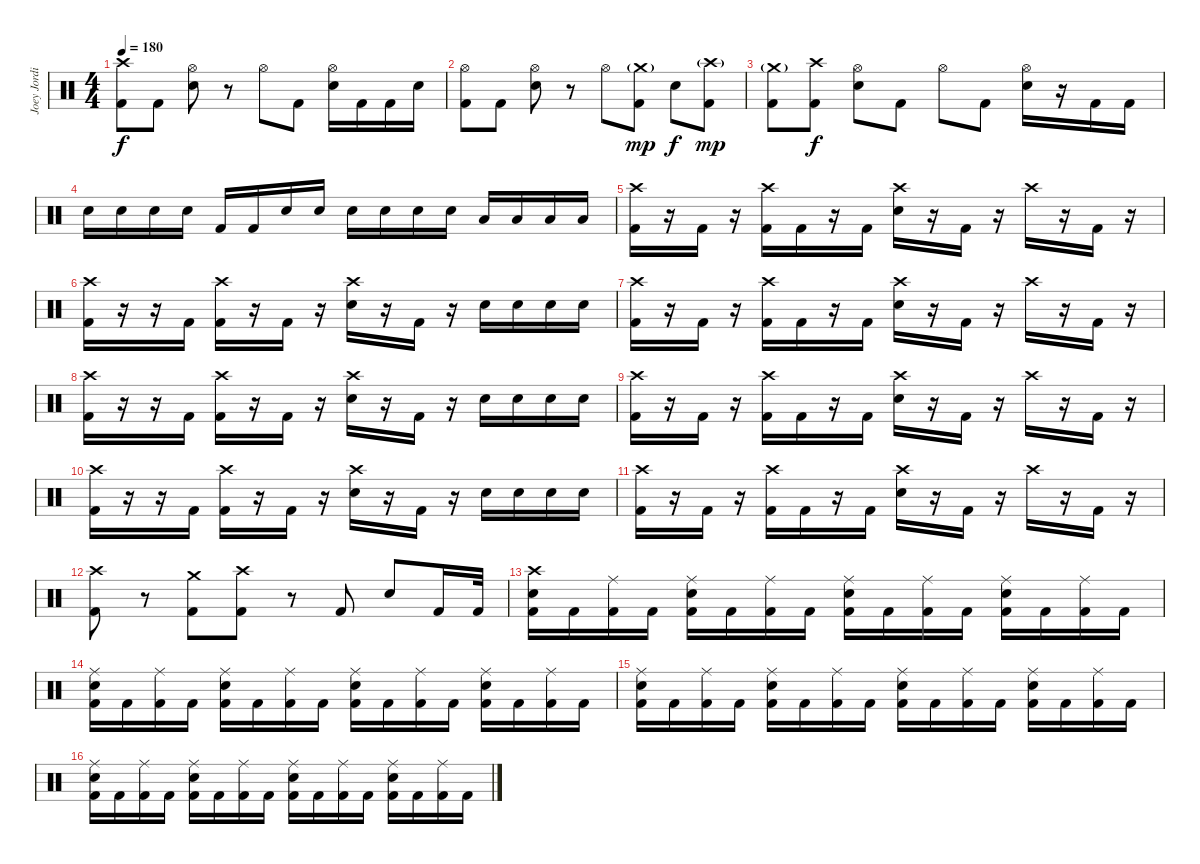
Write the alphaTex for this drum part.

\track ("Joey Jordison" "Joey Jordi") {instrument percussion}
\staff {score}
\articulation defaults
\ts (4 4)
\tempo 180
\clef neutral
\ks c
("Crash high (hit)" "Kick (hit) 2").8{dy f} "Kick (hit) 2".8 ("Hi-Hat (open)" "Electric Snare (hit)").8 r.8 "Hi-Hat (open)".8 "Kick (hit) 2".8 ("Hi-Hat (open)" "Electric Snare (hit)").16 "Kick (hit) 2".16 "Kick (hit) 2".16 "Electric Snare (hit)".16 |
("Hi-Hat (open)" "Kick (hit) 2").8 "Kick (hit) 2".8 ("Hi-Hat (open)" "Electric Snare (hit)").8 r.8 "Hi-Hat (open)".8 ("Crash medium (hit)"{g} "Kick (hit) 2").8{dy mp} "Electric Snare (hit)".8{dy f} ("Crash high (hit)"{g} "Kick (hit) 2").8{dy mp} |
("Crash medium (hit)"{g} "Kick (hit) 2").8 ("Crash high (hit)" "Kick (hit) 2").8{dy f} ("Hi-Hat (open)" "Electric Snare (hit)").8 "Kick (hit) 2".8 "Hi-Hat (open)".8 "Kick (hit) 2".8 ("Hi-Hat (open)" "Electric Snare (hit)").16 r.16 "Kick (hit) 2".16 "Kick (hit) 2".16 |
"Electric Snare (hit)".16 "Electric Snare (hit)".16 "Electric Snare (hit)".16 "Electric Snare (hit)".16 "Kick (hit) 2".16 "Kick (hit) 2".16 "Electric Snare (hit)".16 "Electric Snare (hit)".16 "Electric Snare (hit)".16 "Electric Snare (hit)".16 "Electric Snare (hit)".16 "Electric Snare (hit)".16 "Low Tom (hit)".16 "Low Tom (hit)".16 "Low Tom (hit)".16 "Low Tom (hit)".16 |
("Crash high (hit)" "Kick (hit) 2").16 r.16 "Kick (hit) 2".16 r.16 ("Crash high (hit)" "Kick (hit) 2").16 "Kick (hit) 2".16 r.16 "Kick (hit) 2".16 ("Crash high (hit)" "Electric Snare (hit)").16 r.16 "Kick (hit) 2".16 r.16 "Crash high (hit)".16 r.16 "Kick (hit) 2".16 r.16 |
("Crash high (hit)" "Kick (hit) 2").16 r.16 r.16 "Kick (hit) 2".16 ("Crash high (hit)" "Kick (hit) 2").16 r.16 "Kick (hit) 2".16 r.16 ("Crash high (hit)" "Electric Snare (hit)").16 r.16 "Kick (hit) 2".16 r.16 "Electric Snare (hit)".16 "Electric Snare (hit)".16 "Electric Snare (hit)".16 "Electric Snare (hit)".16 |
("Crash high (hit)" "Kick (hit) 2").16 r.16 "Kick (hit) 2".16 r.16 ("Crash high (hit)" "Kick (hit) 2").16 "Kick (hit) 2".16 r.16 "Kick (hit) 2".16 ("Crash high (hit)" "Electric Snare (hit)").16 r.16 "Kick (hit) 2".16 r.16 "Crash high (hit)".16 r.16 "Kick (hit) 2".16 r.16 |
("Crash high (hit)" "Kick (hit) 2").16 r.16 r.16 "Kick (hit) 2".16 ("Crash high (hit)" "Kick (hit) 2").16 r.16 "Kick (hit) 2".16 r.16 ("Crash high (hit)" "Electric Snare (hit)").16 r.16 "Kick (hit) 2".16 r.16 "Electric Snare (hit)".16 "Electric Snare (hit)".16 "Electric Snare (hit)".16 "Electric Snare (hit)".16 |
("Crash high (hit)" "Kick (hit) 2").16 r.16 "Kick (hit) 2".16 r.16 ("Crash high (hit)" "Kick (hit) 2").16 "Kick (hit) 2".16 r.16 "Kick (hit) 2".16 ("Crash high (hit)" "Electric Snare (hit)").16 r.16 "Kick (hit) 2".16 r.16 "Crash high (hit)".16 r.16 "Kick (hit) 2".16 r.16 |
("Crash high (hit)" "Kick (hit) 2").16 r.16 r.16 "Kick (hit) 2".16 ("Crash high (hit)" "Kick (hit) 2").16 r.16 "Kick (hit) 2".16 r.16 ("Crash high (hit)" "Electric Snare (hit)").16 r.16 "Kick (hit) 2".16 r.16 "Electric Snare (hit)".16 "Electric Snare (hit)".16 "Electric Snare (hit)".16 "Electric Snare (hit)".16 |
("Crash high (hit)" "Kick (hit) 2").16 r.16 "Kick (hit) 2".16 r.16 ("Crash high (hit)" "Kick (hit) 2").16 "Kick (hit) 2".16 r.16 "Kick (hit) 2".16 ("Crash high (hit)" "Electric Snare (hit)").16 r.16 "Kick (hit) 2".16 r.16 "Crash high (hit)".16 r.16 "Kick (hit) 2".16 r.16 |
("Crash high (hit)" "Kick (hit) 2").8 r.8 ("Crash medium (hit)" "Kick (hit) 2").8 ("Crash high (hit)" "Kick (hit) 2").8 r.8 "Kick (hit) 2".8 "Electric Snare (hit)".8 "Kick (hit) 2".16 "Kick (hit) 2".32 |
("Crash high (hit)" "Electric Snare (hit)" "Kick (hit) 2").16 "Kick (hit) 2".16 ("Ride (middle)" "Kick (hit) 2").16 "Kick (hit) 2".16 ("Ride (middle)" "Electric Snare (hit)" "Kick (hit) 2").16 "Kick (hit) 2".16 ("Ride (middle)" "Kick (hit) 2").16 "Kick (hit) 2".16 ("Ride (middle)" "Electric Snare (hit)" "Kick (hit) 2").16 "Kick (hit) 2".16 ("Ride (middle)" "Kick (hit) 2").16 "Kick (hit) 2".16 ("Ride (middle)" "Electric Snare (hit)" "Kick (hit) 2").16 "Kick (hit) 2".16 ("Ride (middle)" "Kick (hit) 2").16 "Kick (hit) 2".16 |
("Ride (middle)" "Electric Snare (hit)" "Kick (hit) 2").16 "Kick (hit) 2".16 ("Ride (middle)" "Kick (hit) 2").16 "Kick (hit) 2".16 ("Ride (middle)" "Electric Snare (hit)" "Kick (hit) 2").16 "Kick (hit) 2".16 ("Ride (middle)" "Kick (hit) 2").16 "Kick (hit) 2".16 ("Ride (middle)" "Electric Snare (hit)" "Kick (hit) 2").16 "Kick (hit) 2".16 ("Ride (middle)" "Kick (hit) 2").16 "Kick (hit) 2".16 ("Ride (middle)" "Electric Snare (hit)" "Kick (hit) 2").16 "Kick (hit) 2".16 ("Ride (middle)" "Kick (hit) 2").16 "Kick (hit) 2".16 |
("Ride (middle)" "Electric Snare (hit)" "Kick (hit) 2").16 "Kick (hit) 2".16 ("Ride (middle)" "Kick (hit) 2").16 "Kick (hit) 2".16 ("Ride (middle)" "Electric Snare (hit)" "Kick (hit) 2").16 "Kick (hit) 2".16 ("Ride (middle)" "Kick (hit) 2").16 "Kick (hit) 2".16 ("Ride (middle)" "Electric Snare (hit)" "Kick (hit) 2").16 "Kick (hit) 2".16 ("Ride (middle)" "Kick (hit) 2").16 "Kick (hit) 2".16 ("Ride (middle)" "Electric Snare (hit)" "Kick (hit) 2").16 "Kick (hit) 2".16 ("Ride (middle)" "Kick (hit) 2").16 "Kick (hit) 2".16 |
("Ride (middle)" "Electric Snare (hit)" "Kick (hit) 2").16 "Kick (hit) 2".16 ("Ride (middle)" "Kick (hit) 2").16 "Kick (hit) 2".16 ("Ride (middle)" "Electric Snare (hit)" "Kick (hit) 2").16 "Kick (hit) 2".16 ("Ride (middle)" "Kick (hit) 2").16 "Kick (hit) 2".16 ("Ride (middle)" "Electric Snare (hit)" "Kick (hit) 2").16 "Kick (hit) 2".16 ("Ride (middle)" "Kick (hit) 2").16 "Kick (hit) 2".16 ("Ride (middle)" "Electric Snare (hit)" "Kick (hit) 2").16 "Kick (hit) 2".16 ("Ride (middle)" "Kick (hit) 2").16 "Kick (hit) 2".16
